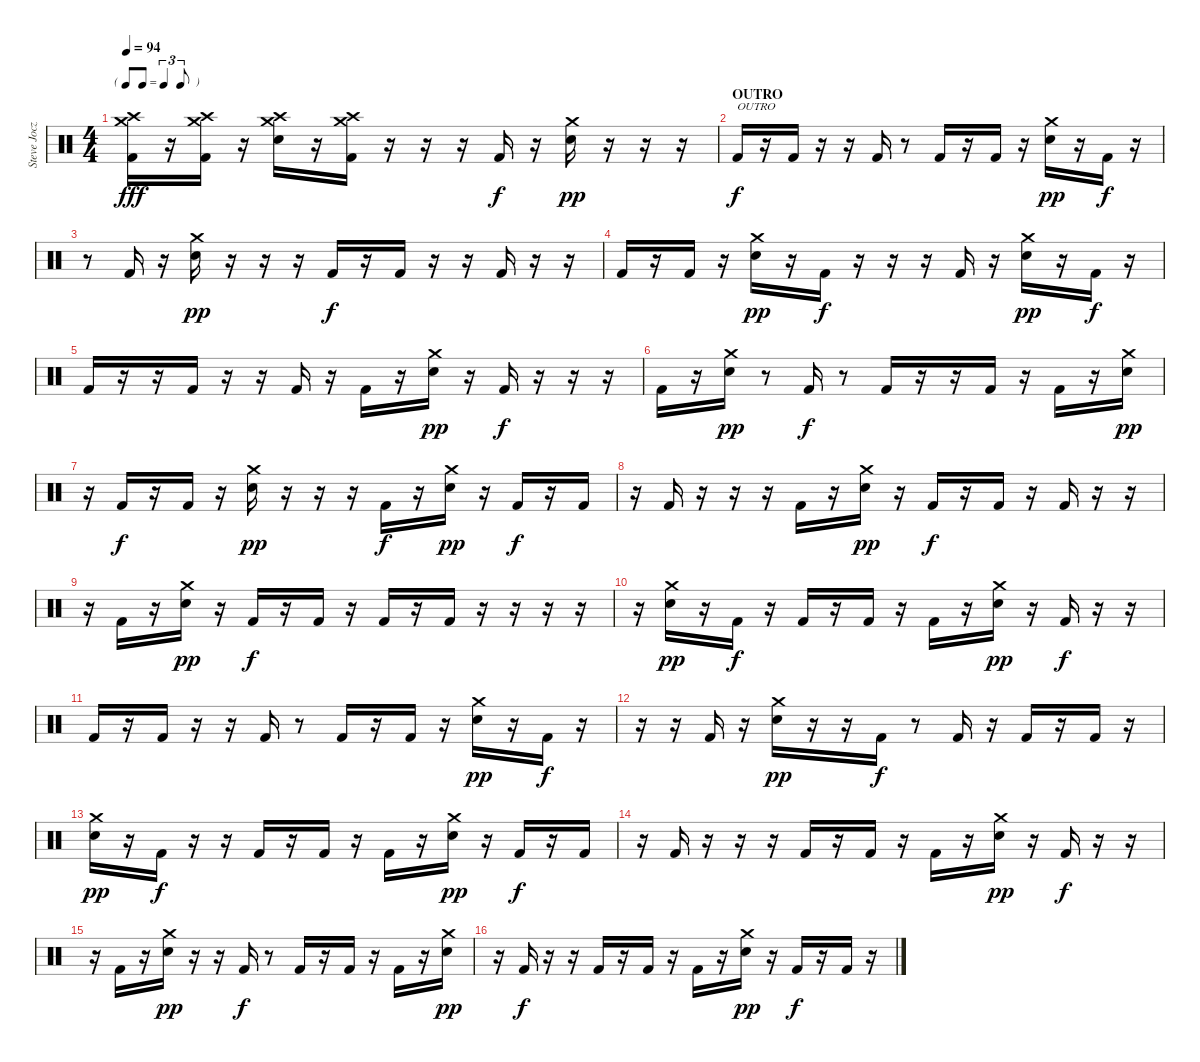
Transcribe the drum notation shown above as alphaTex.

\track ("Steve Jocz   \"Stevo32\"        (drums)" "Steve Jocz") {instrument percussion}
\staff {score}
\articulation defaults
\ts (4 4)
\tf triplet8th
\tempo 94
\clef neutral
\ks c
("Crash high (hit)" "Crash medium (hit)" "Kick (hit) 2").16{dy fff} r.16 ("Crash high (hit)" "Crash medium (hit)" "Kick (hit) 2").16 r.16 ("Crash high (hit)" "Crash medium (hit)" "Electric Snare (hit)").16 r.16 ("Crash high (hit)" "Crash medium (hit)" "Kick (hit) 2").16 r.16 r.16 r.16 "Kick (hit) 2".16{dy f} r.16 ("Crash medium (hit)" "Electric Snare (hit)").16{dy pp} r.16 r.16 r.16 |
\section ("" "OUTRO")
"Kick (hit) 2".16{txt "OUTRO" dy f} r.16 "Kick (hit) 2".16 r.16 r.16 "Kick (hit) 2".16 r.8 "Kick (hit) 2".16 r.16 "Kick (hit) 2".16 r.16 ("Crash medium (hit)" "Electric Snare (hit)").16{dy pp} r.16 "Kick (hit) 2".16{dy f} r.16 |
r.8 "Kick (hit) 2".16 r.16 ("Crash medium (hit)" "Electric Snare (hit)").16{dy pp} r.16 r.16 r.16 "Kick (hit) 2".16{dy f} r.16 "Kick (hit) 2".16 r.16 r.16 "Kick (hit) 2".16 r.16 r.16 |
"Kick (hit) 2".16 r.16 "Kick (hit) 2".16 r.16 ("Crash medium (hit)" "Electric Snare (hit)").16{dy pp} r.16 "Kick (hit) 2".16{dy f} r.16 r.16 r.16 "Kick (hit) 2".16 r.16 ("Crash medium (hit)" "Electric Snare (hit)").16{dy pp} r.16 "Kick (hit) 2".16{dy f} r.16 |
"Kick (hit) 2".16 r.16 r.16 "Kick (hit) 2".16 r.16 r.16 "Kick (hit) 2".16 r.16 "Kick (hit) 2".16 r.16 ("Crash medium (hit)" "Electric Snare (hit)").16{dy pp} r.16 "Kick (hit) 2".16{dy f} r.16 r.16 r.16 |
"Kick (hit) 2".16 r.16 ("Crash medium (hit)" "Electric Snare (hit)").16{dy pp} r.8 "Kick (hit) 2".16{dy f} r.8 "Kick (hit) 2".16 r.16 r.16 "Kick (hit) 2".16 r.16 "Kick (hit) 2".16 r.16 ("Crash medium (hit)" "Electric Snare (hit)").16{dy pp} |
r.16 "Kick (hit) 2".16{dy f} r.16 "Kick (hit) 2".16 r.16 ("Crash medium (hit)" "Electric Snare (hit)").16{dy pp} r.16 r.16 r.16 "Kick (hit) 2".16{dy f} r.16 ("Crash medium (hit)" "Electric Snare (hit)").16{dy pp} r.16 "Kick (hit) 2".16{dy f} r.16 "Kick (hit) 2".16 |
r.16 "Kick (hit) 2".16 r.16 r.16 r.16 "Kick (hit) 2".16 r.16 ("Crash medium (hit)" "Electric Snare (hit)").16{dy pp} r.16 "Kick (hit) 2".16{dy f} r.16 "Kick (hit) 2".16 r.16 "Kick (hit) 2".16 r.16 r.16 |
r.16 "Kick (hit) 2".16 r.16 ("Crash medium (hit)" "Electric Snare (hit)").16{dy pp} r.16 "Kick (hit) 2".16{dy f} r.16 "Kick (hit) 2".16 r.16 "Kick (hit) 2".16 r.16 "Kick (hit) 2".16 r.16 r.16 r.16 r.16 |
r.16 ("Crash medium (hit)" "Electric Snare (hit)").16{dy pp} r.16 "Kick (hit) 2".16{dy f} r.16 "Kick (hit) 2".16 r.16 "Kick (hit) 2".16 r.16 "Kick (hit) 2".16 r.16 ("Crash medium (hit)" "Electric Snare (hit)").16{dy pp} r.16 "Kick (hit) 2".16{dy f} r.16 r.16 |
"Kick (hit) 2".16 r.16 "Kick (hit) 2".16 r.16 r.16 "Kick (hit) 2".16 r.8 "Kick (hit) 2".16 r.16 "Kick (hit) 2".16 r.16 ("Crash medium (hit)" "Electric Snare (hit)").16{dy pp} r.16 "Kick (hit) 2".16{dy f} r.16 |
r.16 r.16 "Kick (hit) 2".16 r.16 ("Crash medium (hit)" "Electric Snare (hit)").16{dy pp} r.16 r.16 "Kick (hit) 2".16{dy f} r.8 "Kick (hit) 2".16 r.16 "Kick (hit) 2".16 r.16 "Kick (hit) 2".16 r.16 |
("Crash medium (hit)" "Electric Snare (hit)").16{dy pp} r.16 "Kick (hit) 2".16{dy f} r.16 r.16 "Kick (hit) 2".16 r.16 "Kick (hit) 2".16 r.16 "Kick (hit) 2".16 r.16 ("Crash medium (hit)" "Electric Snare (hit)").16{dy pp} r.16 "Kick (hit) 2".16{dy f} r.16 "Kick (hit) 2".16 |
r.16 "Kick (hit) 2".16 r.16 r.16 r.16 "Kick (hit) 2".16 r.16 "Kick (hit) 2".16 r.16 "Kick (hit) 2".16 r.16 ("Crash medium (hit)" "Electric Snare (hit)").16{dy pp} r.16 "Kick (hit) 2".16{dy f} r.16 r.16 |
r.16 "Kick (hit) 2".16 r.16 ("Crash medium (hit)" "Electric Snare (hit)").16{dy pp} r.16 r.16 "Kick (hit) 2".16{dy f} r.8 "Kick (hit) 2".16 r.16 "Kick (hit) 2".16 r.16 "Kick (hit) 2".16 r.16 ("Crash medium (hit)" "Electric Snare (hit)").16{dy pp} |
r.16 "Kick (hit) 2".16{dy f} r.16 r.16 "Kick (hit) 2".16 r.16 "Kick (hit) 2".16 r.16 "Kick (hit) 2".16 r.16 ("Crash medium (hit)" "Electric Snare (hit)").16{dy pp} r.16 "Kick (hit) 2".16{dy f} r.16 "Kick (hit) 2".16 r.16
